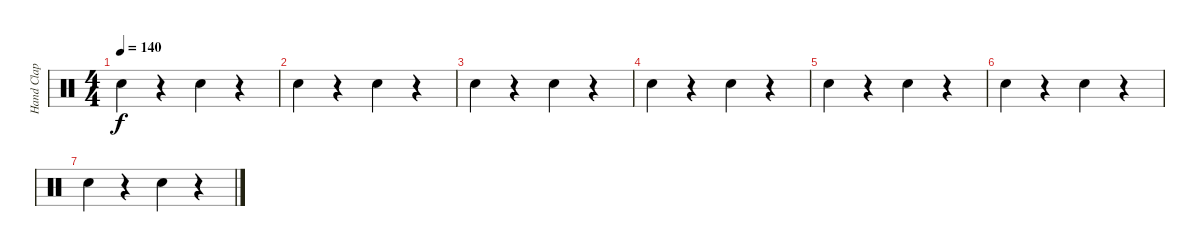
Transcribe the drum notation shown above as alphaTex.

\track ("Hand Clap" "Hand Clap") {instrument percussion}
\staff {score}
\articulation defaults
\ts (4 4)
\tempo 140
\clef neutral
\ks c "Hand Clap (hit)".4{dy f}
r.4 "Hand Clap (hit)".4 r.4 |
"Hand Clap (hit)".4 r.4 "Hand Clap (hit)".4 r.4 |
"Hand Clap (hit)".4 r.4 "Hand Clap (hit)".4 r.4 |
"Hand Clap (hit)".4 r.4 "Hand Clap (hit)".4 r.4 |
"Hand Clap (hit)".4 r.4 "Hand Clap (hit)".4 r.4 |
"Hand Clap (hit)".4 r.4 "Hand Clap (hit)".4 r.4 |
"Hand Clap (hit)".4 r.4 "Hand Clap (hit)".4 r.4
